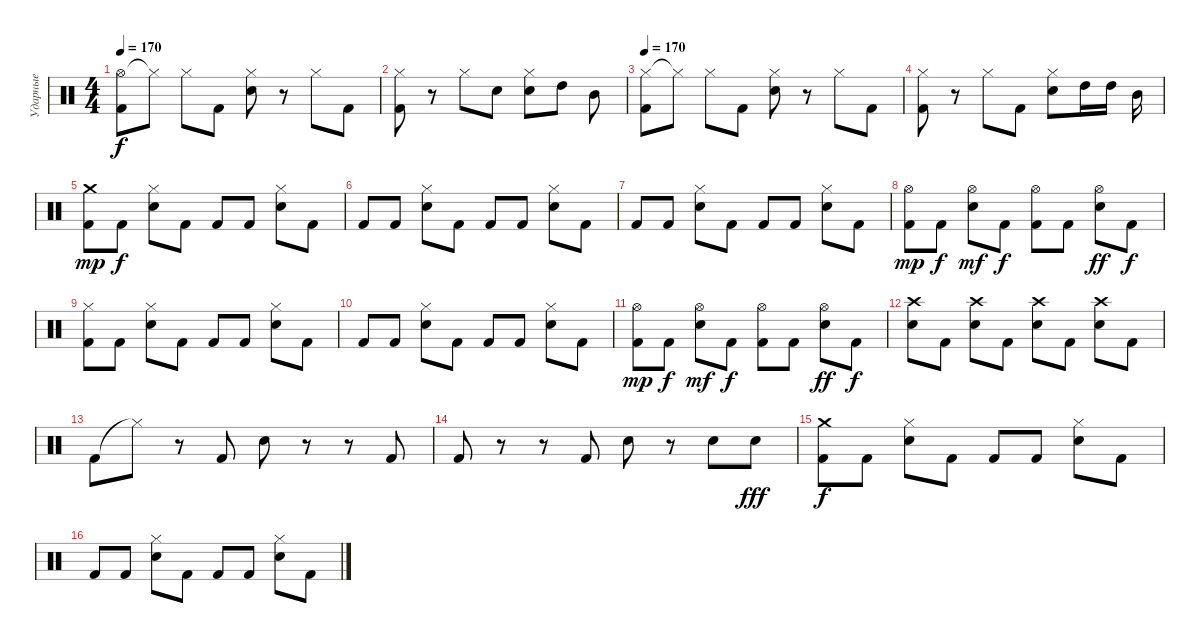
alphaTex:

\track ("Ударные" "Ударные") {instrument percussion}
\staff {score}
\articulation defaults
\ts (4 4)
\tempo 170
\clef neutral
\ks c
("Hi-Hat (open)" "Kick (hit) 2").8{dy f} "Hi-Hat (closed)"{t}.8 "Hi-Hat (closed)".8 "Kick (hit) 2".8 ("Hi-Hat (closed)" "Electric Snare (hit)").8 r.8 "Hi-Hat (closed)".8 "Kick (hit) 2".8 |
("Hi-Hat (closed)" "Kick (hit) 2").8 r.8 "Hi-Hat (closed)".8 "Electric Snare (hit)".8 ("Hi-Hat (closed)" "Electric Snare (hit)").8 "High Tom (hit)".8 "Mid Tom (hit)".8 |
\tempo 170
("Hi-Hat (closed)" "Kick (hit) 2").8 "Hi-Hat (closed)"{t}.8 "Hi-Hat (closed)".8 "Kick (hit) 2".8 ("Hi-Hat (closed)" "Electric Snare (hit)").8 r.8 "Hi-Hat (closed)".8 "Kick (hit) 2".8 |
("Hi-Hat (closed)" "Kick (hit) 2").8 r.8 "Hi-Hat (closed)".8 "Kick (hit) 2".8 ("Hi-Hat (closed)" "Electric Snare (hit)").8 "High Tom (hit)".16 "High Tom (hit)".16 "Mid Tom (hit)".16 |
("Crash medium (hit)" "Kick (hit) 2").8{dy mp} "Kick (hit) 2".8{dy f} ("Hi-Hat (closed)" "Snare (hit) 2").8 "Kick (hit) 2".8 "Kick (hit) 2".8 "Kick (hit) 2".8 ("Hi-Hat (closed)" "Snare (hit) 2").8 "Kick (hit) 2".8 |
"Kick (hit) 2".8 "Kick (hit) 2".8 ("Hi-Hat (closed)" "Snare (hit) 2").8 "Kick (hit) 2".8 "Kick (hit) 2".8 "Kick (hit) 2".8 ("Hi-Hat (closed)" "Snare (hit) 2").8 "Kick (hit) 2".8 |
"Kick (hit) 2".8 "Kick (hit) 2".8 ("Hi-Hat (closed)" "Snare (hit) 2").8 "Kick (hit) 2".8 "Kick (hit) 2".8 "Kick (hit) 2".8 ("Hi-Hat (closed)" "Snare (hit) 2").8 "Kick (hit) 2".8 |
("Hi-Hat (open)" "Kick (hit) 2").8{dy mp} "Kick (hit) 2".8{dy f} ("Hi-Hat (open)" "Snare (hit) 2").8{dy mf} "Kick (hit) 2".8{dy f} ("Hi-Hat (open)" "Kick (hit) 2").8 "Kick (hit) 2".8 ("Hi-Hat (open)" "Snare (hit) 2").8{dy ff} "Kick (hit) 2".8{dy f} |
("Hi-Hat (closed)" "Kick (hit) 2").8 "Kick (hit) 2".8 ("Hi-Hat (closed)" "Snare (hit) 2").8 "Kick (hit) 2".8 "Kick (hit) 2".8 "Kick (hit) 2".8 ("Hi-Hat (closed)" "Snare (hit) 2").8 "Kick (hit) 2".8 |
"Kick (hit) 2".8 "Kick (hit) 2".8 ("Hi-Hat (closed)" "Snare (hit) 2").8 "Kick (hit) 2".8 "Kick (hit) 2".8 "Kick (hit) 2".8 ("Hi-Hat (closed)" "Snare (hit) 2").8 "Kick (hit) 2".8 |
("Hi-Hat (open)" "Kick (hit) 2").8{dy mp} "Kick (hit) 2".8{dy f} ("Hi-Hat (open)" "Snare (hit) 2").8{dy mf} "Kick (hit) 2".8{dy f} ("Hi-Hat (open)" "Kick (hit) 2").8 "Kick (hit) 2".8 ("Hi-Hat (open)" "Snare (hit) 2").8{dy ff} "Kick (hit) 2".8{dy f} |
("Crash high (hit)" "Snare (hit) 2").8 "Kick (hit) 2".8 ("Crash high (hit)" "Snare (hit) 2").8 "Kick (hit) 2".8 ("Crash high (hit)" "Hand Clap (hit)").8 "Kick (hit) 2".8 ("Crash high (hit)" "Hand Clap (hit)").8 "Kick (hit) 2".8 |
"Kick (hit) 2".8 "Hi-Hat (closed)"{t}.8 r.8 "Kick (hit) 2".8 "Electric Snare (hit)".8 r.8 r.8 "Kick (hit) 2".8 |
"Kick (hit) 2".8 r.8 r.8 "Kick (hit) 2".8 "Electric Snare (hit)".8 r.8 "Electric Snare (hit)".8 "Electric Snare (hit)".8{dy fff} |
("Crash medium (hit)" "Kick (hit) 2").8{dy f} "Kick (hit) 2".8 ("Hi-Hat (closed)" "Snare (hit) 2").8 "Kick (hit) 2".8 "Kick (hit) 2".8 "Kick (hit) 2".8 ("Hi-Hat (closed)" "Snare (hit) 2").8 "Kick (hit) 2".8 |
"Kick (hit) 2".8 "Kick (hit) 2".8 ("Hi-Hat (closed)" "Snare (hit) 2").8 "Kick (hit) 2".8 "Kick (hit) 2".8 "Kick (hit) 2".8 ("Hi-Hat (closed)" "Snare (hit) 2").8 "Kick (hit) 2".8
